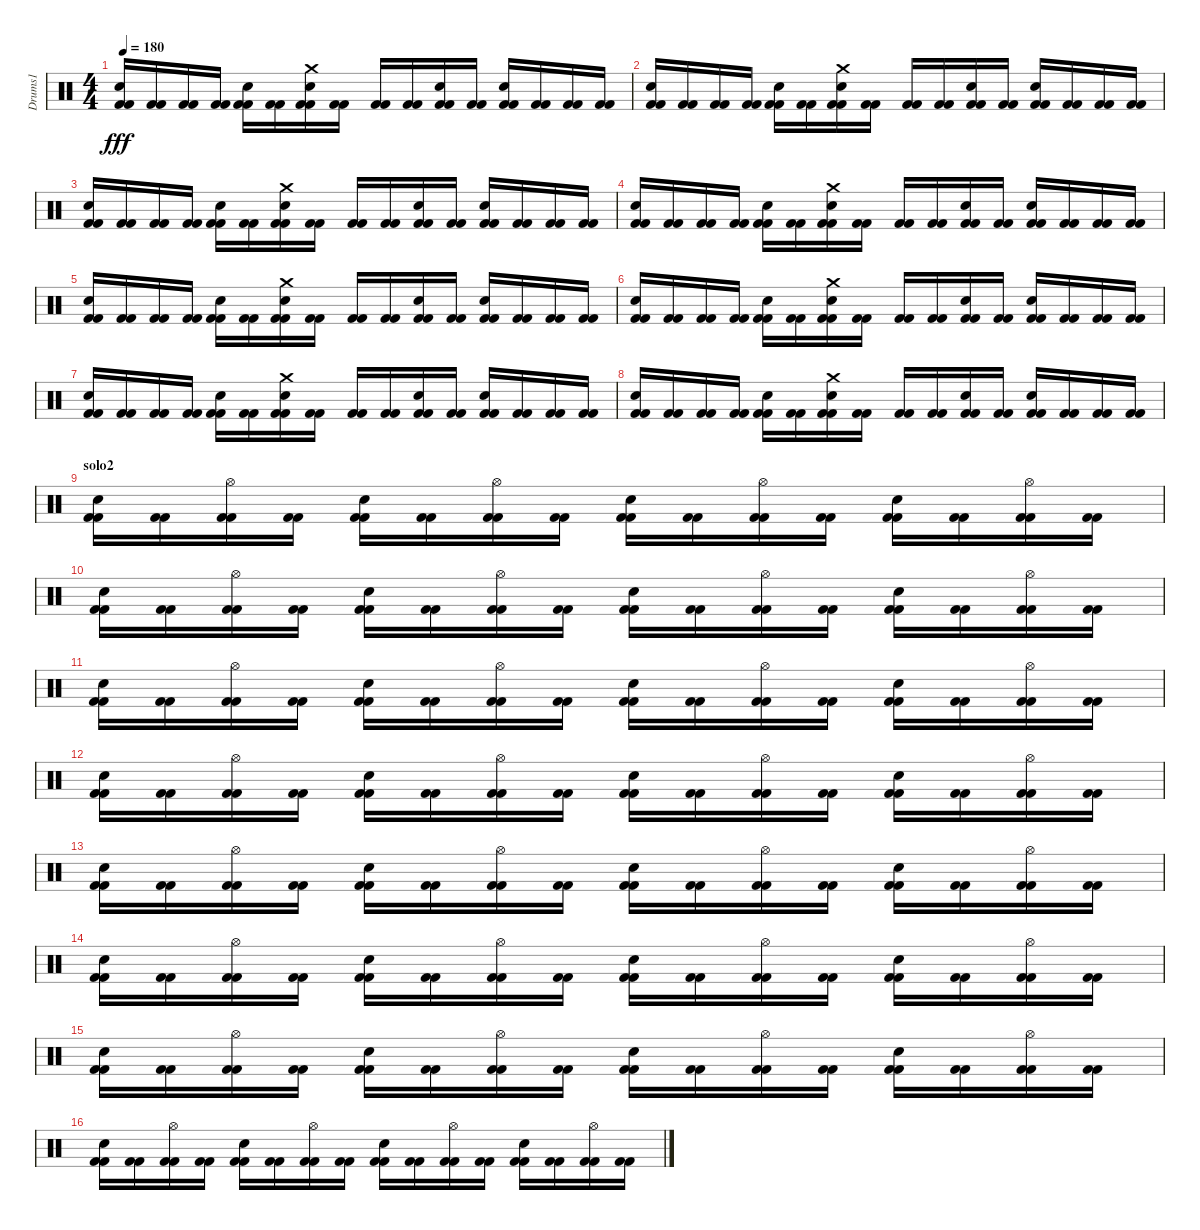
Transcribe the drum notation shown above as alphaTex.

\track ("Drums1" "Drums1") {instrument percussion}
\staff {score}
\articulation defaults
\ts (4 4)
\tempo 180
\clef neutral
\ks c
("Electric Snare (hit)" "Kick (hit) 2" "Kick (hit) 2").16{dy fff} ("Kick (hit) 2" "Kick (hit) 2").16 ("Kick (hit) 2" "Kick (hit) 2").16 ("Kick (hit) 2" "Kick (hit) 2").16 ("Electric Snare (hit)" "Kick (hit) 2" "Kick (hit) 2").16 ("Kick (hit) 2" "Kick (hit) 2").16 ("Crash medium (hit)" "Electric Snare (hit)" "Kick (hit) 2" "Kick (hit) 2").16 ("Kick (hit) 2" "Kick (hit) 2").16 ("Kick (hit) 2" "Kick (hit) 2").16 ("Kick (hit) 2" "Kick (hit) 2").16 ("Electric Snare (hit)" "Kick (hit) 2" "Kick (hit) 2").16 ("Kick (hit) 2" "Kick (hit) 2").16 ("Electric Snare (hit)" "Kick (hit) 2" "Kick (hit) 2").16 ("Kick (hit) 2" "Kick (hit) 2").16 ("Kick (hit) 2" "Kick (hit) 2").16 ("Kick (hit) 2" "Kick (hit) 2").16 |
("Electric Snare (hit)" "Kick (hit) 2" "Kick (hit) 2").16 ("Kick (hit) 2" "Kick (hit) 2").16 ("Kick (hit) 2" "Kick (hit) 2").16 ("Kick (hit) 2" "Kick (hit) 2").16 ("Electric Snare (hit)" "Kick (hit) 2" "Kick (hit) 2").16 ("Kick (hit) 2" "Kick (hit) 2").16 ("Crash medium (hit)" "Electric Snare (hit)" "Kick (hit) 2" "Kick (hit) 2").16 ("Kick (hit) 2" "Kick (hit) 2").16 ("Kick (hit) 2" "Kick (hit) 2").16 ("Kick (hit) 2" "Kick (hit) 2").16 ("Electric Snare (hit)" "Kick (hit) 2" "Kick (hit) 2").16 ("Kick (hit) 2" "Kick (hit) 2").16 ("Electric Snare (hit)" "Kick (hit) 2" "Kick (hit) 2").16 ("Kick (hit) 2" "Kick (hit) 2").16 ("Kick (hit) 2" "Kick (hit) 2").16 ("Kick (hit) 2" "Kick (hit) 2").16 |
("Electric Snare (hit)" "Kick (hit) 2" "Kick (hit) 2").16 ("Kick (hit) 2" "Kick (hit) 2").16 ("Kick (hit) 2" "Kick (hit) 2").16 ("Kick (hit) 2" "Kick (hit) 2").16 ("Electric Snare (hit)" "Kick (hit) 2" "Kick (hit) 2").16 ("Kick (hit) 2" "Kick (hit) 2").16 ("Crash medium (hit)" "Electric Snare (hit)" "Kick (hit) 2" "Kick (hit) 2").16 ("Kick (hit) 2" "Kick (hit) 2").16 ("Kick (hit) 2" "Kick (hit) 2").16 ("Kick (hit) 2" "Kick (hit) 2").16 ("Electric Snare (hit)" "Kick (hit) 2" "Kick (hit) 2").16 ("Kick (hit) 2" "Kick (hit) 2").16 ("Electric Snare (hit)" "Kick (hit) 2" "Kick (hit) 2").16 ("Kick (hit) 2" "Kick (hit) 2").16 ("Kick (hit) 2" "Kick (hit) 2").16 ("Kick (hit) 2" "Kick (hit) 2").16 |
("Electric Snare (hit)" "Kick (hit) 2" "Kick (hit) 2").16 ("Kick (hit) 2" "Kick (hit) 2").16 ("Kick (hit) 2" "Kick (hit) 2").16 ("Kick (hit) 2" "Kick (hit) 2").16 ("Electric Snare (hit)" "Kick (hit) 2" "Kick (hit) 2").16 ("Kick (hit) 2" "Kick (hit) 2").16 ("Crash medium (hit)" "Electric Snare (hit)" "Kick (hit) 2" "Kick (hit) 2").16 ("Kick (hit) 2" "Kick (hit) 2").16 ("Kick (hit) 2" "Kick (hit) 2").16 ("Kick (hit) 2" "Kick (hit) 2").16 ("Electric Snare (hit)" "Kick (hit) 2" "Kick (hit) 2").16 ("Kick (hit) 2" "Kick (hit) 2").16 ("Electric Snare (hit)" "Kick (hit) 2" "Kick (hit) 2").16 ("Kick (hit) 2" "Kick (hit) 2").16 ("Kick (hit) 2" "Kick (hit) 2").16 ("Kick (hit) 2" "Kick (hit) 2").16 |
("Electric Snare (hit)" "Kick (hit) 2" "Kick (hit) 2").16 ("Kick (hit) 2" "Kick (hit) 2").16 ("Kick (hit) 2" "Kick (hit) 2").16 ("Kick (hit) 2" "Kick (hit) 2").16 ("Electric Snare (hit)" "Kick (hit) 2" "Kick (hit) 2").16 ("Kick (hit) 2" "Kick (hit) 2").16 ("Crash medium (hit)" "Electric Snare (hit)" "Kick (hit) 2" "Kick (hit) 2").16 ("Kick (hit) 2" "Kick (hit) 2").16 ("Kick (hit) 2" "Kick (hit) 2").16 ("Kick (hit) 2" "Kick (hit) 2").16 ("Electric Snare (hit)" "Kick (hit) 2" "Kick (hit) 2").16 ("Kick (hit) 2" "Kick (hit) 2").16 ("Electric Snare (hit)" "Kick (hit) 2" "Kick (hit) 2").16 ("Kick (hit) 2" "Kick (hit) 2").16 ("Kick (hit) 2" "Kick (hit) 2").16 ("Kick (hit) 2" "Kick (hit) 2").16 |
("Electric Snare (hit)" "Kick (hit) 2" "Kick (hit) 2").16 ("Kick (hit) 2" "Kick (hit) 2").16 ("Kick (hit) 2" "Kick (hit) 2").16 ("Kick (hit) 2" "Kick (hit) 2").16 ("Electric Snare (hit)" "Kick (hit) 2" "Kick (hit) 2").16 ("Kick (hit) 2" "Kick (hit) 2").16 ("Crash medium (hit)" "Electric Snare (hit)" "Kick (hit) 2" "Kick (hit) 2").16 ("Kick (hit) 2" "Kick (hit) 2").16 ("Kick (hit) 2" "Kick (hit) 2").16 ("Kick (hit) 2" "Kick (hit) 2").16 ("Electric Snare (hit)" "Kick (hit) 2" "Kick (hit) 2").16 ("Kick (hit) 2" "Kick (hit) 2").16 ("Electric Snare (hit)" "Kick (hit) 2" "Kick (hit) 2").16 ("Kick (hit) 2" "Kick (hit) 2").16 ("Kick (hit) 2" "Kick (hit) 2").16 ("Kick (hit) 2" "Kick (hit) 2").16 |
("Electric Snare (hit)" "Kick (hit) 2" "Kick (hit) 2").16 ("Kick (hit) 2" "Kick (hit) 2").16 ("Kick (hit) 2" "Kick (hit) 2").16 ("Kick (hit) 2" "Kick (hit) 2").16 ("Electric Snare (hit)" "Kick (hit) 2" "Kick (hit) 2").16 ("Kick (hit) 2" "Kick (hit) 2").16 ("Crash medium (hit)" "Electric Snare (hit)" "Kick (hit) 2" "Kick (hit) 2").16 ("Kick (hit) 2" "Kick (hit) 2").16 ("Kick (hit) 2" "Kick (hit) 2").16 ("Kick (hit) 2" "Kick (hit) 2").16 ("Electric Snare (hit)" "Kick (hit) 2" "Kick (hit) 2").16 ("Kick (hit) 2" "Kick (hit) 2").16 ("Electric Snare (hit)" "Kick (hit) 2" "Kick (hit) 2").16 ("Kick (hit) 2" "Kick (hit) 2").16 ("Kick (hit) 2" "Kick (hit) 2").16 ("Kick (hit) 2" "Kick (hit) 2").16 |
("Electric Snare (hit)" "Kick (hit) 2" "Kick (hit) 2").16 ("Kick (hit) 2" "Kick (hit) 2").16 ("Kick (hit) 2" "Kick (hit) 2").16 ("Kick (hit) 2" "Kick (hit) 2").16 ("Electric Snare (hit)" "Kick (hit) 2" "Kick (hit) 2").16 ("Kick (hit) 2" "Kick (hit) 2").16 ("Crash medium (hit)" "Electric Snare (hit)" "Kick (hit) 2" "Kick (hit) 2").16 ("Kick (hit) 2" "Kick (hit) 2").16 ("Kick (hit) 2" "Kick (hit) 2").16 ("Kick (hit) 2" "Kick (hit) 2").16 ("Electric Snare (hit)" "Kick (hit) 2" "Kick (hit) 2").16 ("Kick (hit) 2" "Kick (hit) 2").16 ("Electric Snare (hit)" "Kick (hit) 2" "Kick (hit) 2").16 ("Kick (hit) 2" "Kick (hit) 2").16 ("Kick (hit) 2" "Kick (hit) 2").16 ("Kick (hit) 2" "Kick (hit) 2").16 |
\section ("" "solo2")
("Electric Snare (hit)" "Kick (hit) 2" "Kick (hit) 2").16 ("Kick (hit) 2" "Kick (hit) 2").16 ("Hi-Hat (open)" "Kick (hit) 2" "Kick (hit) 2").16 ("Kick (hit) 2" "Kick (hit) 2").16 ("Electric Snare (hit)" "Kick (hit) 2" "Kick (hit) 2").16 ("Kick (hit) 2" "Kick (hit) 2").16 ("Hi-Hat (open)" "Kick (hit) 2" "Kick (hit) 2").16 ("Kick (hit) 2" "Kick (hit) 2").16 ("Electric Snare (hit)" "Kick (hit) 2" "Kick (hit) 2").16 ("Kick (hit) 2" "Kick (hit) 2").16 ("Hi-Hat (open)" "Kick (hit) 2" "Kick (hit) 2").16 ("Kick (hit) 2" "Kick (hit) 2").16 ("Electric Snare (hit)" "Kick (hit) 2" "Kick (hit) 2").16 ("Kick (hit) 2" "Kick (hit) 2").16 ("Hi-Hat (open)" "Kick (hit) 2" "Kick (hit) 2").16 ("Kick (hit) 2" "Kick (hit) 2").16 |
("Electric Snare (hit)" "Kick (hit) 2" "Kick (hit) 2").16 ("Kick (hit) 2" "Kick (hit) 2").16 ("Hi-Hat (open)" "Kick (hit) 2" "Kick (hit) 2").16 ("Kick (hit) 2" "Kick (hit) 2").16 ("Electric Snare (hit)" "Kick (hit) 2" "Kick (hit) 2").16 ("Kick (hit) 2" "Kick (hit) 2").16 ("Hi-Hat (open)" "Kick (hit) 2" "Kick (hit) 2").16 ("Kick (hit) 2" "Kick (hit) 2").16 ("Electric Snare (hit)" "Kick (hit) 2" "Kick (hit) 2").16 ("Kick (hit) 2" "Kick (hit) 2").16 ("Hi-Hat (open)" "Kick (hit) 2" "Kick (hit) 2").16 ("Kick (hit) 2" "Kick (hit) 2").16 ("Electric Snare (hit)" "Kick (hit) 2" "Kick (hit) 2").16 ("Kick (hit) 2" "Kick (hit) 2").16 ("Hi-Hat (open)" "Kick (hit) 2" "Kick (hit) 2").16 ("Kick (hit) 2" "Kick (hit) 2").16 |
("Electric Snare (hit)" "Kick (hit) 2" "Kick (hit) 2").16 ("Kick (hit) 2" "Kick (hit) 2").16 ("Hi-Hat (open)" "Kick (hit) 2" "Kick (hit) 2").16 ("Kick (hit) 2" "Kick (hit) 2").16 ("Electric Snare (hit)" "Kick (hit) 2" "Kick (hit) 2").16 ("Kick (hit) 2" "Kick (hit) 2").16 ("Hi-Hat (open)" "Kick (hit) 2" "Kick (hit) 2").16 ("Kick (hit) 2" "Kick (hit) 2").16 ("Electric Snare (hit)" "Kick (hit) 2" "Kick (hit) 2").16 ("Kick (hit) 2" "Kick (hit) 2").16 ("Hi-Hat (open)" "Kick (hit) 2" "Kick (hit) 2").16 ("Kick (hit) 2" "Kick (hit) 2").16 ("Electric Snare (hit)" "Kick (hit) 2" "Kick (hit) 2").16 ("Kick (hit) 2" "Kick (hit) 2").16 ("Hi-Hat (open)" "Kick (hit) 2" "Kick (hit) 2").16 ("Kick (hit) 2" "Kick (hit) 2").16 |
("Electric Snare (hit)" "Kick (hit) 2" "Kick (hit) 2").16 ("Kick (hit) 2" "Kick (hit) 2").16 ("Hi-Hat (open)" "Kick (hit) 2" "Kick (hit) 2").16 ("Kick (hit) 2" "Kick (hit) 2").16 ("Electric Snare (hit)" "Kick (hit) 2" "Kick (hit) 2").16 ("Kick (hit) 2" "Kick (hit) 2").16 ("Hi-Hat (open)" "Kick (hit) 2" "Kick (hit) 2").16 ("Kick (hit) 2" "Kick (hit) 2").16 ("Electric Snare (hit)" "Kick (hit) 2" "Kick (hit) 2").16 ("Kick (hit) 2" "Kick (hit) 2").16 ("Hi-Hat (open)" "Kick (hit) 2" "Kick (hit) 2").16 ("Kick (hit) 2" "Kick (hit) 2").16 ("Electric Snare (hit)" "Kick (hit) 2" "Kick (hit) 2").16 ("Kick (hit) 2" "Kick (hit) 2").16 ("Hi-Hat (open)" "Kick (hit) 2" "Kick (hit) 2").16 ("Kick (hit) 2" "Kick (hit) 2").16 |
("Electric Snare (hit)" "Kick (hit) 2" "Kick (hit) 2").16 ("Kick (hit) 2" "Kick (hit) 2").16 ("Hi-Hat (open)" "Kick (hit) 2" "Kick (hit) 2").16 ("Kick (hit) 2" "Kick (hit) 2").16 ("Electric Snare (hit)" "Kick (hit) 2" "Kick (hit) 2").16 ("Kick (hit) 2" "Kick (hit) 2").16 ("Hi-Hat (open)" "Kick (hit) 2" "Kick (hit) 2").16 ("Kick (hit) 2" "Kick (hit) 2").16 ("Electric Snare (hit)" "Kick (hit) 2" "Kick (hit) 2").16 ("Kick (hit) 2" "Kick (hit) 2").16 ("Hi-Hat (open)" "Kick (hit) 2" "Kick (hit) 2").16 ("Kick (hit) 2" "Kick (hit) 2").16 ("Electric Snare (hit)" "Kick (hit) 2" "Kick (hit) 2").16 ("Kick (hit) 2" "Kick (hit) 2").16 ("Hi-Hat (open)" "Kick (hit) 2" "Kick (hit) 2").16 ("Kick (hit) 2" "Kick (hit) 2").16 |
("Electric Snare (hit)" "Kick (hit) 2" "Kick (hit) 2").16 ("Kick (hit) 2" "Kick (hit) 2").16 ("Hi-Hat (open)" "Kick (hit) 2" "Kick (hit) 2").16 ("Kick (hit) 2" "Kick (hit) 2").16 ("Electric Snare (hit)" "Kick (hit) 2" "Kick (hit) 2").16 ("Kick (hit) 2" "Kick (hit) 2").16 ("Hi-Hat (open)" "Kick (hit) 2" "Kick (hit) 2").16 ("Kick (hit) 2" "Kick (hit) 2").16 ("Electric Snare (hit)" "Kick (hit) 2" "Kick (hit) 2").16 ("Kick (hit) 2" "Kick (hit) 2").16 ("Hi-Hat (open)" "Kick (hit) 2" "Kick (hit) 2").16 ("Kick (hit) 2" "Kick (hit) 2").16 ("Electric Snare (hit)" "Kick (hit) 2" "Kick (hit) 2").16 ("Kick (hit) 2" "Kick (hit) 2").16 ("Hi-Hat (open)" "Kick (hit) 2" "Kick (hit) 2").16 ("Kick (hit) 2" "Kick (hit) 2").16 |
("Electric Snare (hit)" "Kick (hit) 2" "Kick (hit) 2").16 ("Kick (hit) 2" "Kick (hit) 2").16 ("Hi-Hat (open)" "Kick (hit) 2" "Kick (hit) 2").16 ("Kick (hit) 2" "Kick (hit) 2").16 ("Electric Snare (hit)" "Kick (hit) 2" "Kick (hit) 2").16 ("Kick (hit) 2" "Kick (hit) 2").16 ("Hi-Hat (open)" "Kick (hit) 2" "Kick (hit) 2").16 ("Kick (hit) 2" "Kick (hit) 2").16 ("Electric Snare (hit)" "Kick (hit) 2" "Kick (hit) 2").16 ("Kick (hit) 2" "Kick (hit) 2").16 ("Hi-Hat (open)" "Kick (hit) 2" "Kick (hit) 2").16 ("Kick (hit) 2" "Kick (hit) 2").16 ("Electric Snare (hit)" "Kick (hit) 2" "Kick (hit) 2").16 ("Kick (hit) 2" "Kick (hit) 2").16 ("Hi-Hat (open)" "Kick (hit) 2" "Kick (hit) 2").16 ("Kick (hit) 2" "Kick (hit) 2").16 |
("Electric Snare (hit)" "Kick (hit) 2" "Kick (hit) 2").16 ("Kick (hit) 2" "Kick (hit) 2").16 ("Hi-Hat (open)" "Kick (hit) 2" "Kick (hit) 2").16 ("Kick (hit) 2" "Kick (hit) 2").16 ("Electric Snare (hit)" "Kick (hit) 2" "Kick (hit) 2").16 ("Kick (hit) 2" "Kick (hit) 2").16 ("Hi-Hat (open)" "Kick (hit) 2" "Kick (hit) 2").16 ("Kick (hit) 2" "Kick (hit) 2").16 ("Electric Snare (hit)" "Kick (hit) 2" "Kick (hit) 2").16 ("Kick (hit) 2" "Kick (hit) 2").16 ("Hi-Hat (open)" "Kick (hit) 2" "Kick (hit) 2").16 ("Kick (hit) 2" "Kick (hit) 2").16 ("Electric Snare (hit)" "Kick (hit) 2" "Kick (hit) 2").16 ("Kick (hit) 2" "Kick (hit) 2").16 ("Hi-Hat (open)" "Kick (hit) 2" "Kick (hit) 2").16 ("Kick (hit) 2" "Kick (hit) 2").16
